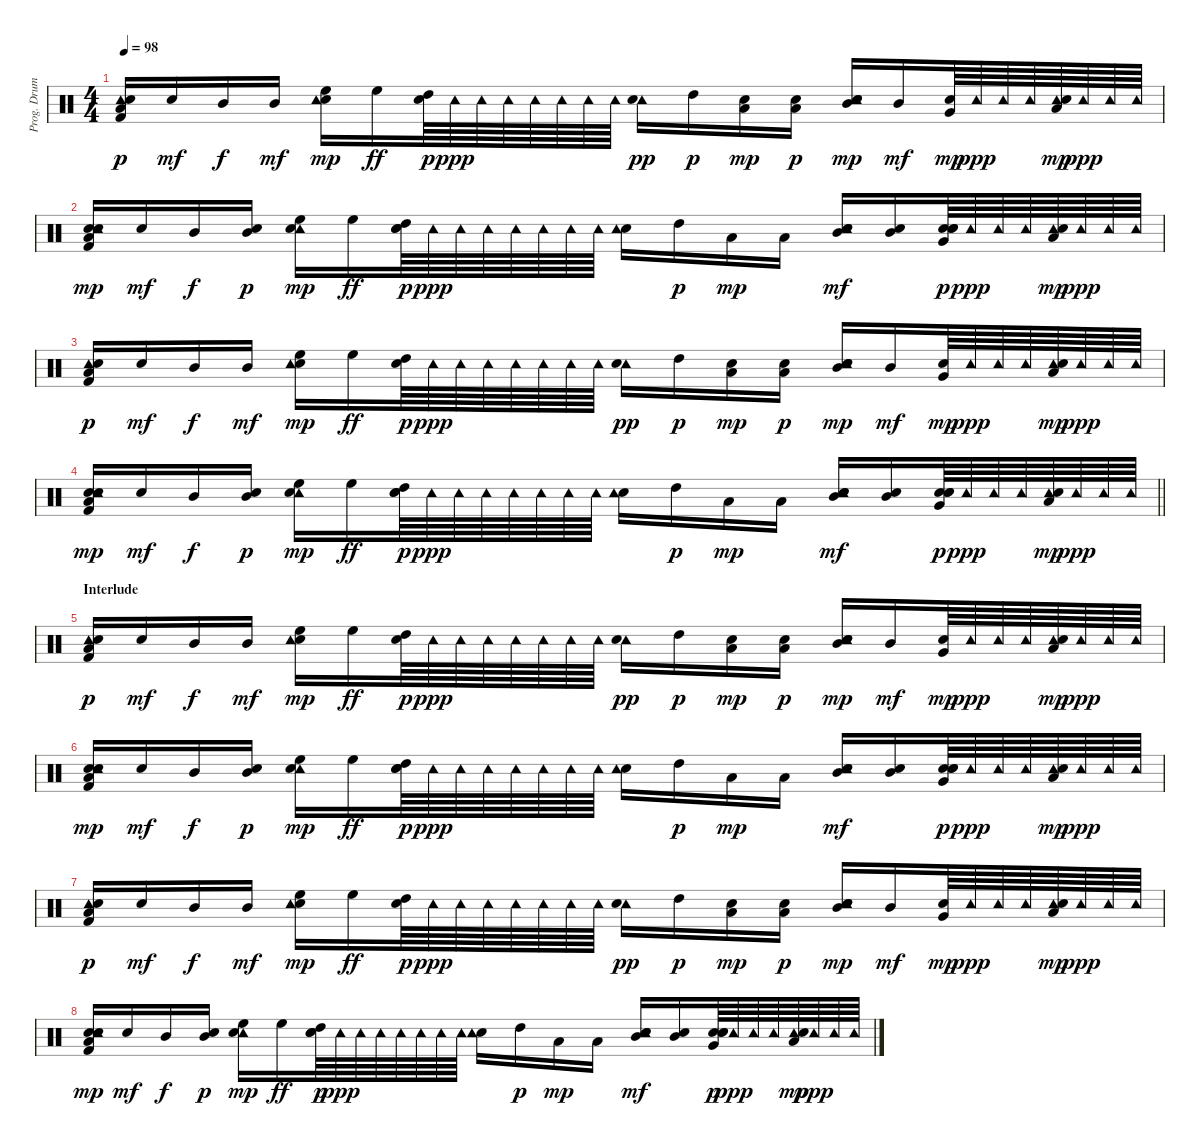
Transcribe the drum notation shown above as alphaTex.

\track ("Prog. Drums" "Prog. Drum") {instrument percussion}
\staff {score}
\articulation defaults
\ts (4 4)
\tempo 98
\clef neutral
\ks c
("Tambourine (hit)" "Snare (hit)" "Low Floor Tom (hit)" "Kick (hit) 2").16{dy p} "Snare (hit)".16{dy mf} "Mid Tom (hit)".16{dy f} "Mid Tom (hit)".16{dy mf} ("Snare (hit) 2" "High Floor Tom (hit)" "Tambourine (hit)").16{dy mp} "High Floor Tom (hit)".16{dy ff} ("High Tom (hit)" "Snare (hit)").64{dy p} "Tambourine (hit)".64{dy ppp} "Tambourine (hit)".64 "Tambourine (hit)".64 "Tambourine (hit)".64 "Tambourine (hit)".64 "Tambourine (hit)".64 "Tambourine (hit)".64 ("Tambourine (hit)" "Snare (hit) 2").16{dy pp} "High Tom (hit)".16{dy p} ("Snare (hit)" "Low Tom (hit)").16{dy mp} ("Low Tom (hit)" "Snare (hit)").16{dy p} ("Snare (hit) 2" "Mid Tom (hit)" "Snare (hit)" "Tambourine (hit)").16{dy mp} "Mid Tom (hit)".16{dy mf} ("Snare (hit)" "Very Low Tom (hit)").64{dy mp} "Tambourine (hit)".64{dy ppp} "Tambourine (hit)".64 "Tambourine (hit)".64 ("Tambourine (hit)" "Snare (hit) 2" "Low Tom (hit)").64{dy mp} "Tambourine (hit)".64{dy ppp} "Tambourine (hit)".64 "Tambourine (hit)".64 |
("Snare (hit)" "Snare (hit)" "Tambourine (hit)" "Kick (hit) 2" "Low Floor Tom (hit)").16{dy mp} "Snare (hit)".16{dy mf} "Mid Tom (hit)".16{dy f} ("Mid Tom (hit)" "Snare (hit)").16{dy p} ("Tambourine (hit)" "High Floor Tom (hit)" "Snare (hit) 2").16{dy mp} "High Floor Tom (hit)".16{dy ff} ("High Tom (hit)" "Snare (hit)" "Snare (hit)").64{dy p} "Tambourine (hit)".64{dy ppp} "Tambourine (hit)".64 "Tambourine (hit)".64 "Tambourine (hit)".64 "Tambourine (hit)".64 "Tambourine (hit)".64 "Tambourine (hit)".64 ("Snare (hit) 2" "Tambourine (hit)").16 "High Tom (hit)".16{dy p} "Low Tom (hit)".16{dy mp} "Low Tom (hit)".16 ("Tambourine (hit)" "Snare (hit)" "Snare (hit) 2" "Mid Tom (hit)").16{dy mf} ("Snare (hit) 2" "Mid Tom (hit)").16 ("Snare (hit) 2" "Very Low Tom (hit)" "Snare (hit)" "Snare (hit)").64{dy p} "Tambourine (hit)".64{dy ppp} "Tambourine (hit)".64 "Tambourine (hit)".64 ("Tambourine (hit)" "Snare (hit) 2" "Low Tom (hit)").64{dy mp} "Tambourine (hit)".64{dy ppp} "Tambourine (hit)".64 "Tambourine (hit)".64 |
("Tambourine (hit)" "Snare (hit)" "Low Floor Tom (hit)" "Kick (hit) 2").16{dy p} "Snare (hit)".16{dy mf} "Mid Tom (hit)".16{dy f} "Mid Tom (hit)".16{dy mf} ("Snare (hit) 2" "High Floor Tom (hit)" "Tambourine (hit)").16{dy mp} "High Floor Tom (hit)".16{dy ff} ("High Tom (hit)" "Snare (hit)").64{dy p} "Tambourine (hit)".64{dy ppp} "Tambourine (hit)".64 "Tambourine (hit)".64 "Tambourine (hit)".64 "Tambourine (hit)".64 "Tambourine (hit)".64 "Tambourine (hit)".64 ("Tambourine (hit)" "Snare (hit) 2").16{dy pp} "High Tom (hit)".16{dy p} ("Snare (hit)" "Low Tom (hit)").16{dy mp} ("Low Tom (hit)" "Snare (hit)").16{dy p} ("Snare (hit) 2" "Mid Tom (hit)" "Snare (hit)" "Tambourine (hit)").16{dy mp} "Mid Tom (hit)".16{dy mf} ("Snare (hit)" "Very Low Tom (hit)").64{dy mp} "Tambourine (hit)".64{dy ppp} "Tambourine (hit)".64 "Tambourine (hit)".64 ("Tambourine (hit)" "Snare (hit) 2" "Low Tom (hit)").64{dy mp} "Tambourine (hit)".64{dy ppp} "Tambourine (hit)".64 "Tambourine (hit)".64 |
\barLineRight lightlight
("Snare (hit)" "Snare (hit)" "Tambourine (hit)" "Kick (hit) 2" "Low Floor Tom (hit)").16{dy mp} "Snare (hit)".16{dy mf} "Mid Tom (hit)".16{dy f} ("Mid Tom (hit)" "Snare (hit)").16{dy p} ("Tambourine (hit)" "High Floor Tom (hit)" "Snare (hit) 2").16{dy mp} "High Floor Tom (hit)".16{dy ff} ("High Tom (hit)" "Snare (hit)" "Snare (hit)").64{dy p} "Tambourine (hit)".64{dy ppp} "Tambourine (hit)".64 "Tambourine (hit)".64 "Tambourine (hit)".64 "Tambourine (hit)".64 "Tambourine (hit)".64 "Tambourine (hit)".64 ("Snare (hit) 2" "Tambourine (hit)").16 "High Tom (hit)".16{dy p} "Low Tom (hit)".16{dy mp} "Low Tom (hit)".16 ("Tambourine (hit)" "Snare (hit)" "Snare (hit) 2" "Mid Tom (hit)").16{dy mf} ("Snare (hit) 2" "Mid Tom (hit)").16 ("Snare (hit) 2" "Very Low Tom (hit)" "Snare (hit)" "Snare (hit)").64{dy p} "Tambourine (hit)".64{dy ppp} "Tambourine (hit)".64 "Tambourine (hit)".64 ("Tambourine (hit)" "Snare (hit) 2" "Low Tom (hit)").64{dy mp} "Tambourine (hit)".64{dy ppp} "Tambourine (hit)".64 "Tambourine (hit)".64 |
\section ("" "Interlude")
("Tambourine (hit)" "Snare (hit)" "Low Floor Tom (hit)" "Kick (hit) 2").16{dy p} "Snare (hit)".16{dy mf} "Mid Tom (hit)".16{dy f} "Mid Tom (hit)".16{dy mf} ("Snare (hit) 2" "High Floor Tom (hit)" "Tambourine (hit)").16{dy mp} "High Floor Tom (hit)".16{dy ff} ("High Tom (hit)" "Snare (hit)").64{dy p} "Tambourine (hit)".64{dy ppp} "Tambourine (hit)".64 "Tambourine (hit)".64 "Tambourine (hit)".64 "Tambourine (hit)".64 "Tambourine (hit)".64 "Tambourine (hit)".64 ("Tambourine (hit)" "Snare (hit) 2").16{dy pp} "High Tom (hit)".16{dy p} ("Snare (hit)" "Low Tom (hit)").16{dy mp} ("Low Tom (hit)" "Snare (hit)").16{dy p} ("Snare (hit) 2" "Mid Tom (hit)" "Snare (hit)" "Tambourine (hit)").16{dy mp} "Mid Tom (hit)".16{dy mf} ("Snare (hit)" "Very Low Tom (hit)").64{dy mp} "Tambourine (hit)".64{dy ppp} "Tambourine (hit)".64 "Tambourine (hit)".64 ("Tambourine (hit)" "Snare (hit) 2" "Low Tom (hit)").64{dy mp} "Tambourine (hit)".64{dy ppp} "Tambourine (hit)".64 "Tambourine (hit)".64 |
("Snare (hit)" "Snare (hit)" "Tambourine (hit)" "Kick (hit) 2" "Low Floor Tom (hit)").16{dy mp} "Snare (hit)".16{dy mf} "Mid Tom (hit)".16{dy f} ("Mid Tom (hit)" "Snare (hit)").16{dy p} ("Tambourine (hit)" "High Floor Tom (hit)" "Snare (hit) 2").16{dy mp} "High Floor Tom (hit)".16{dy ff} ("High Tom (hit)" "Snare (hit)" "Snare (hit)").64{dy p} "Tambourine (hit)".64{dy ppp} "Tambourine (hit)".64 "Tambourine (hit)".64 "Tambourine (hit)".64 "Tambourine (hit)".64 "Tambourine (hit)".64 "Tambourine (hit)".64 ("Snare (hit) 2" "Tambourine (hit)").16 "High Tom (hit)".16{dy p} "Low Tom (hit)".16{dy mp} "Low Tom (hit)".16 ("Tambourine (hit)" "Snare (hit)" "Snare (hit) 2" "Mid Tom (hit)").16{dy mf} ("Snare (hit) 2" "Mid Tom (hit)").16 ("Snare (hit) 2" "Very Low Tom (hit)" "Snare (hit)" "Snare (hit)").64{dy p} "Tambourine (hit)".64{dy ppp} "Tambourine (hit)".64 "Tambourine (hit)".64 ("Tambourine (hit)" "Snare (hit) 2" "Low Tom (hit)").64{dy mp} "Tambourine (hit)".64{dy ppp} "Tambourine (hit)".64 "Tambourine (hit)".64 |
("Tambourine (hit)" "Snare (hit)" "Low Floor Tom (hit)" "Kick (hit) 2").16{dy p} "Snare (hit)".16{dy mf} "Mid Tom (hit)".16{dy f} "Mid Tom (hit)".16{dy mf} ("Snare (hit) 2" "High Floor Tom (hit)" "Tambourine (hit)").16{dy mp} "High Floor Tom (hit)".16{dy ff} ("High Tom (hit)" "Snare (hit)").64{dy p} "Tambourine (hit)".64{dy ppp} "Tambourine (hit)".64 "Tambourine (hit)".64 "Tambourine (hit)".64 "Tambourine (hit)".64 "Tambourine (hit)".64 "Tambourine (hit)".64 ("Tambourine (hit)" "Snare (hit) 2").16{dy pp} "High Tom (hit)".16{dy p} ("Snare (hit)" "Low Tom (hit)").16{dy mp} ("Low Tom (hit)" "Snare (hit)").16{dy p} ("Snare (hit) 2" "Mid Tom (hit)" "Snare (hit)" "Tambourine (hit)").16{dy mp} "Mid Tom (hit)".16{dy mf} ("Snare (hit)" "Very Low Tom (hit)").64{dy mp} "Tambourine (hit)".64{dy ppp} "Tambourine (hit)".64 "Tambourine (hit)".64 ("Tambourine (hit)" "Snare (hit) 2" "Low Tom (hit)").64{dy mp} "Tambourine (hit)".64{dy ppp} "Tambourine (hit)".64 "Tambourine (hit)".64 |
("Snare (hit)" "Snare (hit)" "Tambourine (hit)" "Kick (hit) 2" "Low Floor Tom (hit)").16{dy mp} "Snare (hit)".16{dy mf} "Mid Tom (hit)".16{dy f} ("Mid Tom (hit)" "Snare (hit)").16{dy p} ("Tambourine (hit)" "High Floor Tom (hit)" "Snare (hit) 2").16{dy mp} "High Floor Tom (hit)".16{dy ff} ("High Tom (hit)" "Snare (hit)" "Snare (hit)").64{dy p} "Tambourine (hit)".64{dy ppp} "Tambourine (hit)".64 "Tambourine (hit)".64 "Tambourine (hit)".64 "Tambourine (hit)".64 "Tambourine (hit)".64 "Tambourine (hit)".64 ("Snare (hit) 2" "Tambourine (hit)").16 "High Tom (hit)".16{dy p} "Low Tom (hit)".16{dy mp} "Low Tom (hit)".16 ("Tambourine (hit)" "Snare (hit)" "Snare (hit) 2" "Mid Tom (hit)").16{dy mf} ("Snare (hit) 2" "Mid Tom (hit)").16 ("Snare (hit) 2" "Very Low Tom (hit)" "Snare (hit)" "Snare (hit)").64{dy p} "Tambourine (hit)".64{dy ppp} "Tambourine (hit)".64 "Tambourine (hit)".64 ("Tambourine (hit)" "Snare (hit) 2" "Low Tom (hit)").64{dy mp} "Tambourine (hit)".64{dy ppp} "Tambourine (hit)".64 "Tambourine (hit)".64
